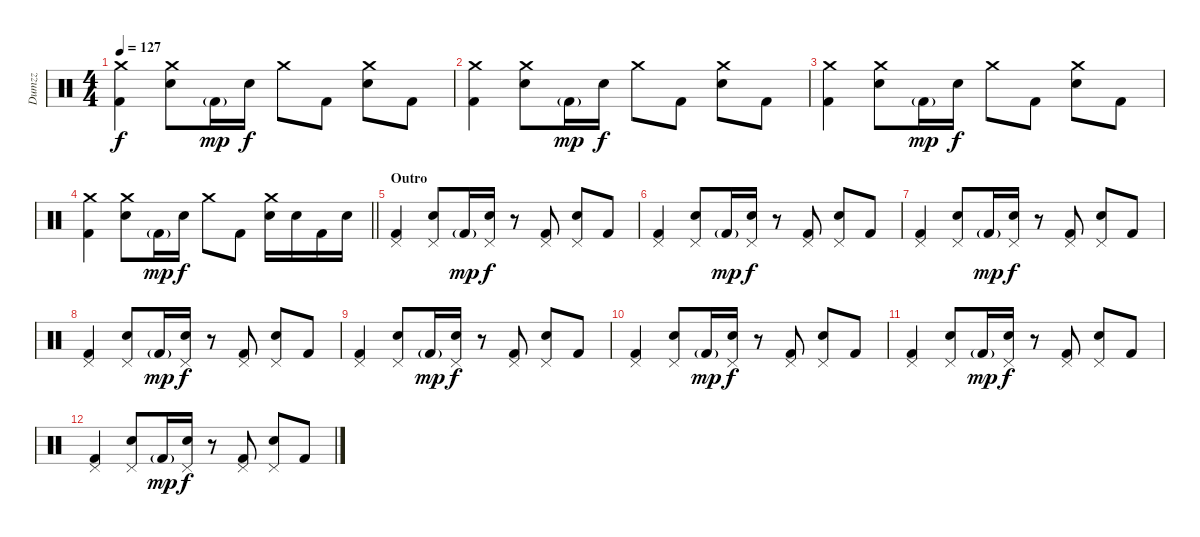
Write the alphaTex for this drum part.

\track ("Dumzz" "Dumzz") {instrument percussion}
\staff {score}
\articulation defaults
\ts (4 4)
\tempo 127
\clef neutral
\ks c
("Crash medium (hit)" "Kick (hit) 2").4{dy f} ("Crash medium (hit)" "Snare (hit) 2").8 "Kick (hit) 2"{g}.16{dy mp} "Snare (hit) 2".16{dy f} "Crash medium (hit)".8 "Kick (hit) 2".8 ("Crash medium (hit)" "Snare (hit) 2").8 "Kick (hit) 2".8 |
("Crash medium (hit)" "Kick (hit) 2").4 ("Crash medium (hit)" "Snare (hit) 2").8 "Kick (hit) 2"{g}.16{dy mp} "Snare (hit) 2".16{dy f} "Crash medium (hit)".8 "Kick (hit) 2".8 ("Crash medium (hit)" "Snare (hit) 2").8 "Kick (hit) 2".8 |
("Crash medium (hit)" "Kick (hit) 2").4 ("Crash medium (hit)" "Snare (hit) 2").8 "Kick (hit) 2"{g}.16{dy mp} "Snare (hit) 2".16{dy f} "Crash medium (hit)".8 "Kick (hit) 2".8 ("Crash medium (hit)" "Snare (hit) 2").8 "Kick (hit) 2".8 |
\barLineRight lightlight
("Crash medium (hit)" "Kick (hit) 2").4 ("Crash medium (hit)" "Snare (hit) 2").8 "Kick (hit) 2"{g}.16{dy mp} "Snare (hit) 2".16{dy f} "Crash medium (hit)".8 "Kick (hit) 2".8 ("Crash medium (hit)" "Snare (hit) 2").16 "Snare (hit) 2".16 "Kick (hit) 2".16 "Snare (hit) 2".16 |
\section ("" "Outro")
("Pedal Hi-Hat (hit)" "Kick (hit) 2").4 ("Pedal Hi-Hat (hit)" "Snare (hit) 2").8 "Kick (hit) 2"{g}.16{dy mp} ("Pedal Hi-Hat (hit)" "Snare (hit) 2").16{dy f} r.8 ("Pedal Hi-Hat (hit)" "Kick (hit) 2").8 ("Pedal Hi-Hat (hit)" "Snare (hit) 2").8 "Kick (hit) 2".8 |
("Pedal Hi-Hat (hit)" "Kick (hit) 2").4 ("Pedal Hi-Hat (hit)" "Snare (hit) 2").8 "Kick (hit) 2"{g}.16{dy mp} ("Pedal Hi-Hat (hit)" "Snare (hit) 2").16{dy f} r.8 ("Pedal Hi-Hat (hit)" "Kick (hit) 2").8 ("Pedal Hi-Hat (hit)" "Snare (hit) 2").8 "Kick (hit) 2".8 |
("Pedal Hi-Hat (hit)" "Kick (hit) 2").4 ("Pedal Hi-Hat (hit)" "Snare (hit) 2").8 "Kick (hit) 2"{g}.16{dy mp} ("Pedal Hi-Hat (hit)" "Snare (hit) 2").16{dy f} r.8 ("Pedal Hi-Hat (hit)" "Kick (hit) 2").8 ("Pedal Hi-Hat (hit)" "Snare (hit) 2").8 "Kick (hit) 2".8 |
("Pedal Hi-Hat (hit)" "Kick (hit) 2").4 ("Pedal Hi-Hat (hit)" "Snare (hit) 2").8 "Kick (hit) 2"{g}.16{dy mp} ("Pedal Hi-Hat (hit)" "Snare (hit) 2").16{dy f} r.8 ("Pedal Hi-Hat (hit)" "Kick (hit) 2").8 ("Pedal Hi-Hat (hit)" "Snare (hit) 2").8 "Kick (hit) 2".8 |
("Pedal Hi-Hat (hit)" "Kick (hit) 2").4 ("Pedal Hi-Hat (hit)" "Snare (hit) 2").8 "Kick (hit) 2"{g}.16{dy mp} ("Pedal Hi-Hat (hit)" "Snare (hit) 2").16{dy f} r.8 ("Pedal Hi-Hat (hit)" "Kick (hit) 2").8 ("Pedal Hi-Hat (hit)" "Snare (hit) 2").8 "Kick (hit) 2".8 |
("Pedal Hi-Hat (hit)" "Kick (hit) 2").4 ("Pedal Hi-Hat (hit)" "Snare (hit) 2").8 "Kick (hit) 2"{g}.16{dy mp} ("Pedal Hi-Hat (hit)" "Snare (hit) 2").16{dy f} r.8 ("Pedal Hi-Hat (hit)" "Kick (hit) 2").8 ("Pedal Hi-Hat (hit)" "Snare (hit) 2").8 "Kick (hit) 2".8 |
("Pedal Hi-Hat (hit)" "Kick (hit) 2").4 ("Pedal Hi-Hat (hit)" "Snare (hit) 2").8 "Kick (hit) 2"{g}.16{dy mp} ("Pedal Hi-Hat (hit)" "Snare (hit) 2").16{dy f} r.8 ("Pedal Hi-Hat (hit)" "Kick (hit) 2").8 ("Pedal Hi-Hat (hit)" "Snare (hit) 2").8 "Kick (hit) 2".8 |
("Pedal Hi-Hat (hit)" "Kick (hit) 2").4 ("Pedal Hi-Hat (hit)" "Snare (hit) 2").8 "Kick (hit) 2"{g}.16{dy mp} ("Pedal Hi-Hat (hit)" "Snare (hit) 2").16{dy f} r.8 ("Pedal Hi-Hat (hit)" "Kick (hit) 2").8 ("Pedal Hi-Hat (hit)" "Snare (hit) 2").8 "Kick (hit) 2".8
